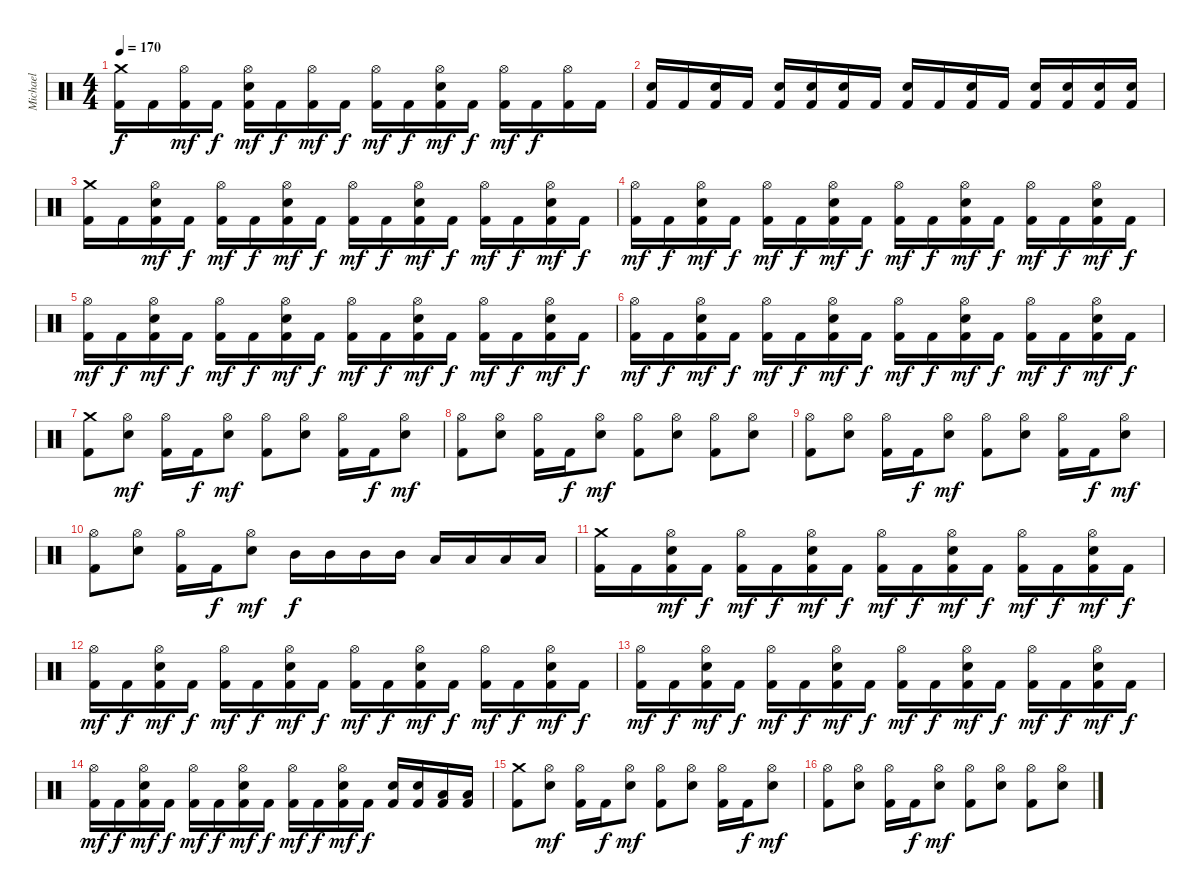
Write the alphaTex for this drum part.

\track ("Michael" "Michael") {instrument percussion}
\staff {score}
\articulation defaults
\ts (4 4)
\tempo 170
\clef neutral
\ks c
("Crash medium (hit)" "Kick (hit) 2").16{dy f} "Kick (hit) 2".16 ("Hi-Hat (open)" "Kick (hit) 2").16{dy mf} "Kick (hit) 2".16{dy f} ("Hi-Hat (open)" "Electric Snare (hit)" "Kick (hit) 2").16{dy mf} "Kick (hit) 2".16{dy f} ("Hi-Hat (open)" "Kick (hit) 2").16{dy mf} "Kick (hit) 2".16{dy f} ("Hi-Hat (open)" "Kick (hit) 2").16{dy mf} "Kick (hit) 2".16{dy f} ("Hi-Hat (open)" "Electric Snare (hit)" "Kick (hit) 2").16{dy mf} "Kick (hit) 2".16{dy f} ("Hi-Hat (open)" "Kick (hit) 2").16{dy mf} "Kick (hit) 2".16{dy f} ("Hi-Hat (open)" "Kick (hit) 2").16 "Kick (hit) 2".16 |
("Electric Snare (hit)" "Kick (hit) 2").16 "Kick (hit) 2".16 ("Electric Snare (hit)" "Kick (hit) 2").16 "Kick (hit) 2".16 ("Electric Snare (hit)" "Kick (hit) 2").16 ("Electric Snare (hit)" "Kick (hit) 2").16 ("Electric Snare (hit)" "Kick (hit) 2").16 "Kick (hit) 2".16 ("Electric Snare (hit)" "Kick (hit) 2").16 "Kick (hit) 2".16 ("Electric Snare (hit)" "Kick (hit) 2").16 "Kick (hit) 2".16 ("Electric Snare (hit)" "Kick (hit) 2").16 ("Electric Snare (hit)" "Kick (hit) 2").16 ("Electric Snare (hit)" "Kick (hit) 2").16 ("Electric Snare (hit)" "Kick (hit) 2").16 |
("Crash medium (hit)" "Kick (hit) 2").16 "Kick (hit) 2".16 ("Hi-Hat (open)" "Electric Snare (hit)" "Kick (hit) 2").16{dy mf} "Kick (hit) 2".16{dy f} ("Hi-Hat (open)" "Kick (hit) 2").16{dy mf} "Kick (hit) 2".16{dy f} ("Hi-Hat (open)" "Electric Snare (hit)" "Kick (hit) 2").16{dy mf} "Kick (hit) 2".16{dy f} ("Hi-Hat (open)" "Kick (hit) 2").16{dy mf} "Kick (hit) 2".16{dy f} ("Hi-Hat (open)" "Electric Snare (hit)" "Kick (hit) 2").16{dy mf} "Kick (hit) 2".16{dy f} ("Hi-Hat (open)" "Kick (hit) 2").16{dy mf} "Kick (hit) 2".16{dy f} ("Hi-Hat (open)" "Electric Snare (hit)" "Kick (hit) 2").16{dy mf} "Kick (hit) 2".16{dy f} |
("Hi-Hat (open)" "Kick (hit) 2").16{dy mf} "Kick (hit) 2".16{dy f} ("Hi-Hat (open)" "Electric Snare (hit)" "Kick (hit) 2").16{dy mf} "Kick (hit) 2".16{dy f} ("Hi-Hat (open)" "Kick (hit) 2").16{dy mf} "Kick (hit) 2".16{dy f} ("Hi-Hat (open)" "Electric Snare (hit)" "Kick (hit) 2").16{dy mf} "Kick (hit) 2".16{dy f} ("Hi-Hat (open)" "Kick (hit) 2").16{dy mf} "Kick (hit) 2".16{dy f} ("Hi-Hat (open)" "Electric Snare (hit)" "Kick (hit) 2").16{dy mf} "Kick (hit) 2".16{dy f} ("Hi-Hat (open)" "Kick (hit) 2").16{dy mf} "Kick (hit) 2".16{dy f} ("Hi-Hat (open)" "Electric Snare (hit)" "Kick (hit) 2").16{dy mf} "Kick (hit) 2".16{dy f} |
("Hi-Hat (open)" "Kick (hit) 2").16{dy mf} "Kick (hit) 2".16{dy f} ("Hi-Hat (open)" "Electric Snare (hit)" "Kick (hit) 2").16{dy mf} "Kick (hit) 2".16{dy f} ("Hi-Hat (open)" "Kick (hit) 2").16{dy mf} "Kick (hit) 2".16{dy f} ("Hi-Hat (open)" "Electric Snare (hit)" "Kick (hit) 2").16{dy mf} "Kick (hit) 2".16{dy f} ("Hi-Hat (open)" "Kick (hit) 2").16{dy mf} "Kick (hit) 2".16{dy f} ("Hi-Hat (open)" "Electric Snare (hit)" "Kick (hit) 2").16{dy mf} "Kick (hit) 2".16{dy f} ("Hi-Hat (open)" "Kick (hit) 2").16{dy mf} "Kick (hit) 2".16{dy f} ("Hi-Hat (open)" "Electric Snare (hit)" "Kick (hit) 2").16{dy mf} "Kick (hit) 2".16{dy f} |
("Hi-Hat (open)" "Kick (hit) 2").16{dy mf} "Kick (hit) 2".16{dy f} ("Hi-Hat (open)" "Electric Snare (hit)" "Kick (hit) 2").16{dy mf} "Kick (hit) 2".16{dy f} ("Hi-Hat (open)" "Kick (hit) 2").16{dy mf} "Kick (hit) 2".16{dy f} ("Hi-Hat (open)" "Electric Snare (hit)" "Kick (hit) 2").16{dy mf} "Kick (hit) 2".16{dy f} ("Hi-Hat (open)" "Kick (hit) 2").16{dy mf} "Kick (hit) 2".16{dy f} ("Hi-Hat (open)" "Electric Snare (hit)" "Kick (hit) 2").16{dy mf} "Kick (hit) 2".16{dy f} ("Hi-Hat (open)" "Kick (hit) 2").16{dy mf} "Kick (hit) 2".16{dy f} ("Hi-Hat (open)" "Electric Snare (hit)" "Kick (hit) 2").16{dy mf} "Kick (hit) 2".16{dy f} |
("Crash medium (hit)" "Kick (hit) 2").8 ("Hi-Hat (open)" "Electric Snare (hit)").8{dy mf} ("Hi-Hat (open)" "Kick (hit) 2").16 "Kick (hit) 2".16{dy f} ("Hi-Hat (open)" "Electric Snare (hit)").8{dy mf} ("Hi-Hat (open)" "Kick (hit) 2").8 ("Hi-Hat (open)" "Electric Snare (hit)").8 ("Hi-Hat (open)" "Kick (hit) 2").16 "Kick (hit) 2".16{dy f} ("Hi-Hat (open)" "Electric Snare (hit)").8{dy mf} |
("Hi-Hat (open)" "Kick (hit) 2").8 ("Hi-Hat (open)" "Electric Snare (hit)").8 ("Hi-Hat (open)" "Kick (hit) 2").16 "Kick (hit) 2".16{dy f} ("Hi-Hat (open)" "Electric Snare (hit)").8{dy mf} ("Hi-Hat (open)" "Kick (hit) 2").8 ("Hi-Hat (open)" "Electric Snare (hit)").8 ("Hi-Hat (open)" "Kick (hit) 2").8 ("Hi-Hat (open)" "Electric Snare (hit)").8 |
("Hi-Hat (open)" "Kick (hit) 2").8 ("Hi-Hat (open)" "Electric Snare (hit)").8 ("Hi-Hat (open)" "Kick (hit) 2").16 "Kick (hit) 2".16{dy f} ("Hi-Hat (open)" "Electric Snare (hit)").8{dy mf} ("Hi-Hat (open)" "Kick (hit) 2").8 ("Hi-Hat (open)" "Electric Snare (hit)").8 ("Hi-Hat (open)" "Kick (hit) 2").16 "Kick (hit) 2".16{dy f} ("Hi-Hat (open)" "Electric Snare (hit)").8{dy mf} |
("Hi-Hat (open)" "Kick (hit) 2").8 ("Hi-Hat (open)" "Electric Snare (hit)").8 ("Hi-Hat (open)" "Kick (hit) 2").16 "Kick (hit) 2".16{dy f} ("Hi-Hat (open)" "Electric Snare (hit)").8{dy mf} "Mid Tom (hit)".16{dy f} "Mid Tom (hit)".16 "Mid Tom (hit)".16 "Mid Tom (hit)".16 "Low Tom (hit)".16 "Low Tom (hit)".16 "Low Tom (hit)".16 "Low Tom (hit)".16 |
("Crash medium (hit)" "Kick (hit) 2").16 "Kick (hit) 2".16 ("Hi-Hat (open)" "Electric Snare (hit)" "Kick (hit) 2").16{dy mf} "Kick (hit) 2".16{dy f} ("Hi-Hat (open)" "Kick (hit) 2").16{dy mf} "Kick (hit) 2".16{dy f} ("Hi-Hat (open)" "Electric Snare (hit)" "Kick (hit) 2").16{dy mf} "Kick (hit) 2".16{dy f} ("Hi-Hat (open)" "Kick (hit) 2").16{dy mf} "Kick (hit) 2".16{dy f} ("Hi-Hat (open)" "Electric Snare (hit)" "Kick (hit) 2").16{dy mf} "Kick (hit) 2".16{dy f} ("Hi-Hat (open)" "Kick (hit) 2").16{dy mf} "Kick (hit) 2".16{dy f} ("Hi-Hat (open)" "Electric Snare (hit)" "Kick (hit) 2").16{dy mf} "Kick (hit) 2".16{dy f} |
("Hi-Hat (open)" "Kick (hit) 2").16{dy mf} "Kick (hit) 2".16{dy f} ("Hi-Hat (open)" "Electric Snare (hit)" "Kick (hit) 2").16{dy mf} "Kick (hit) 2".16{dy f} ("Hi-Hat (open)" "Kick (hit) 2").16{dy mf} "Kick (hit) 2".16{dy f} ("Hi-Hat (open)" "Electric Snare (hit)" "Kick (hit) 2").16{dy mf} "Kick (hit) 2".16{dy f} ("Hi-Hat (open)" "Kick (hit) 2").16{dy mf} "Kick (hit) 2".16{dy f} ("Hi-Hat (open)" "Electric Snare (hit)" "Kick (hit) 2").16{dy mf} "Kick (hit) 2".16{dy f} ("Hi-Hat (open)" "Kick (hit) 2").16{dy mf} "Kick (hit) 2".16{dy f} ("Hi-Hat (open)" "Electric Snare (hit)" "Kick (hit) 2").16{dy mf} "Kick (hit) 2".16{dy f} |
("Hi-Hat (open)" "Kick (hit) 2").16{dy mf} "Kick (hit) 2".16{dy f} ("Hi-Hat (open)" "Electric Snare (hit)" "Kick (hit) 2").16{dy mf} "Kick (hit) 2".16{dy f} ("Hi-Hat (open)" "Kick (hit) 2").16{dy mf} "Kick (hit) 2".16{dy f} ("Hi-Hat (open)" "Electric Snare (hit)" "Kick (hit) 2").16{dy mf} "Kick (hit) 2".16{dy f} ("Hi-Hat (open)" "Kick (hit) 2").16{dy mf} "Kick (hit) 2".16{dy f} ("Hi-Hat (open)" "Electric Snare (hit)" "Kick (hit) 2").16{dy mf} "Kick (hit) 2".16{dy f} ("Hi-Hat (open)" "Kick (hit) 2").16{dy mf} "Kick (hit) 2".16{dy f} ("Hi-Hat (open)" "Electric Snare (hit)" "Kick (hit) 2").16{dy mf} "Kick (hit) 2".16{dy f} |
("Hi-Hat (open)" "Kick (hit) 2").16{dy mf} "Kick (hit) 2".16{dy f} ("Hi-Hat (open)" "Electric Snare (hit)" "Kick (hit) 2").16{dy mf} "Kick (hit) 2".16{dy f} ("Hi-Hat (open)" "Kick (hit) 2").16{dy mf} "Kick (hit) 2".16{dy f} ("Hi-Hat (open)" "Electric Snare (hit)" "Kick (hit) 2").16{dy mf} "Kick (hit) 2".16{dy f} ("Hi-Hat (open)" "Kick (hit) 2").16{dy mf} "Kick (hit) 2".16{dy f} ("Hi-Hat (open)" "Electric Snare (hit)" "Kick (hit) 2").16{dy mf} "Kick (hit) 2".16{dy f} ("Electric Snare (hit)" "Kick (hit) 2").16 ("Electric Snare (hit)" "Kick (hit) 2").16 ("Low Tom (hit)" "Kick (hit) 2").16 ("Low Tom (hit)" "Kick (hit) 2").16 |
("Crash medium (hit)" "Kick (hit) 2").8 ("Hi-Hat (open)" "Electric Snare (hit)").8{dy mf} ("Hi-Hat (open)" "Kick (hit) 2").16 "Kick (hit) 2".16{dy f} ("Hi-Hat (open)" "Electric Snare (hit)").8{dy mf} ("Hi-Hat (open)" "Kick (hit) 2").8 ("Hi-Hat (open)" "Electric Snare (hit)").8 ("Hi-Hat (open)" "Kick (hit) 2").16 "Kick (hit) 2".16{dy f} ("Hi-Hat (open)" "Electric Snare (hit)").8{dy mf} |
("Hi-Hat (open)" "Kick (hit) 2").8 ("Hi-Hat (open)" "Electric Snare (hit)").8 ("Hi-Hat (open)" "Kick (hit) 2").16 "Kick (hit) 2".16{dy f} ("Hi-Hat (open)" "Electric Snare (hit)").8{dy mf} ("Hi-Hat (open)" "Kick (hit) 2").8 ("Hi-Hat (open)" "Electric Snare (hit)").8 ("Hi-Hat (open)" "Kick (hit) 2").8 ("Hi-Hat (open)" "Electric Snare (hit)").8
